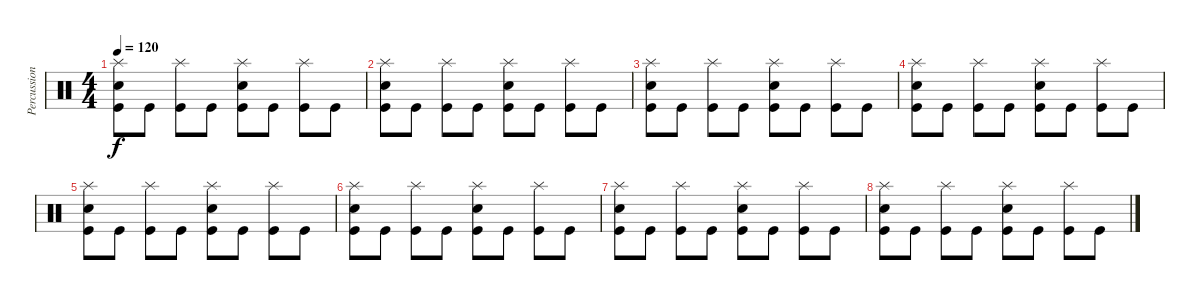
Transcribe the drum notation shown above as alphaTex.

\track ("Percussion" "Percussion") {instrument percussion}
\staff {score}
\articulation defaults
\ts (4 4)
\tempo 120
\clef neutral
\ks c
("Splash (hit)" "Snare (hit) 2" "Kick (hit)").8{dy f} "Kick (hit)".8 ("Splash (hit)" "Kick (hit)").8 "Kick (hit)".8 ("Splash (hit)" "Snare (hit) 2" "Kick (hit)").8 "Kick (hit)".8 ("Splash (hit)" "Kick (hit)").8 "Kick (hit)".8 |
("Splash (hit)" "Snare (hit) 2" "Kick (hit)").8 "Kick (hit)".8 ("Splash (hit)" "Kick (hit)").8 "Kick (hit)".8 ("Splash (hit)" "Snare (hit) 2" "Kick (hit)").8 "Kick (hit)".8 ("Splash (hit)" "Kick (hit)").8 "Kick (hit)".8 |
("Splash (hit)" "Snare (hit) 2" "Kick (hit)").8 "Kick (hit)".8 ("Splash (hit)" "Kick (hit)").8 "Kick (hit)".8 ("Splash (hit)" "Snare (hit) 2" "Kick (hit)").8 "Kick (hit)".8 ("Splash (hit)" "Kick (hit)").8 "Kick (hit)".8 |
("Splash (hit)" "Snare (hit) 2" "Kick (hit)").8 "Kick (hit)".8 ("Splash (hit)" "Kick (hit)").8 "Kick (hit)".8 ("Splash (hit)" "Snare (hit) 2" "Kick (hit)").8 "Kick (hit)".8 ("Splash (hit)" "Kick (hit)").8 "Kick (hit)".8 |
("Splash (hit)" "Snare (hit) 2" "Kick (hit)").8 "Kick (hit)".8 ("Splash (hit)" "Kick (hit)").8 "Kick (hit)".8 ("Splash (hit)" "Snare (hit) 2" "Kick (hit)").8 "Kick (hit)".8 ("Splash (hit)" "Kick (hit)").8 "Kick (hit)".8 |
("Splash (hit)" "Snare (hit) 2" "Kick (hit)").8 "Kick (hit)".8 ("Splash (hit)" "Kick (hit)").8 "Kick (hit)".8 ("Splash (hit)" "Snare (hit) 2" "Kick (hit)").8 "Kick (hit)".8 ("Splash (hit)" "Kick (hit)").8 "Kick (hit)".8 |
("Splash (hit)" "Snare (hit) 2" "Kick (hit)").8 "Kick (hit)".8 ("Splash (hit)" "Kick (hit)").8 "Kick (hit)".8 ("Splash (hit)" "Snare (hit) 2" "Kick (hit)").8 "Kick (hit)".8 ("Splash (hit)" "Kick (hit)").8 "Kick (hit)".8 |
("Splash (hit)" "Snare (hit) 2" "Kick (hit)").8 "Kick (hit)".8 ("Splash (hit)" "Kick (hit)").8 "Kick (hit)".8 ("Splash (hit)" "Snare (hit) 2" "Kick (hit)").8 "Kick (hit)".8 ("Splash (hit)" "Kick (hit)").8 "Kick (hit)".8
